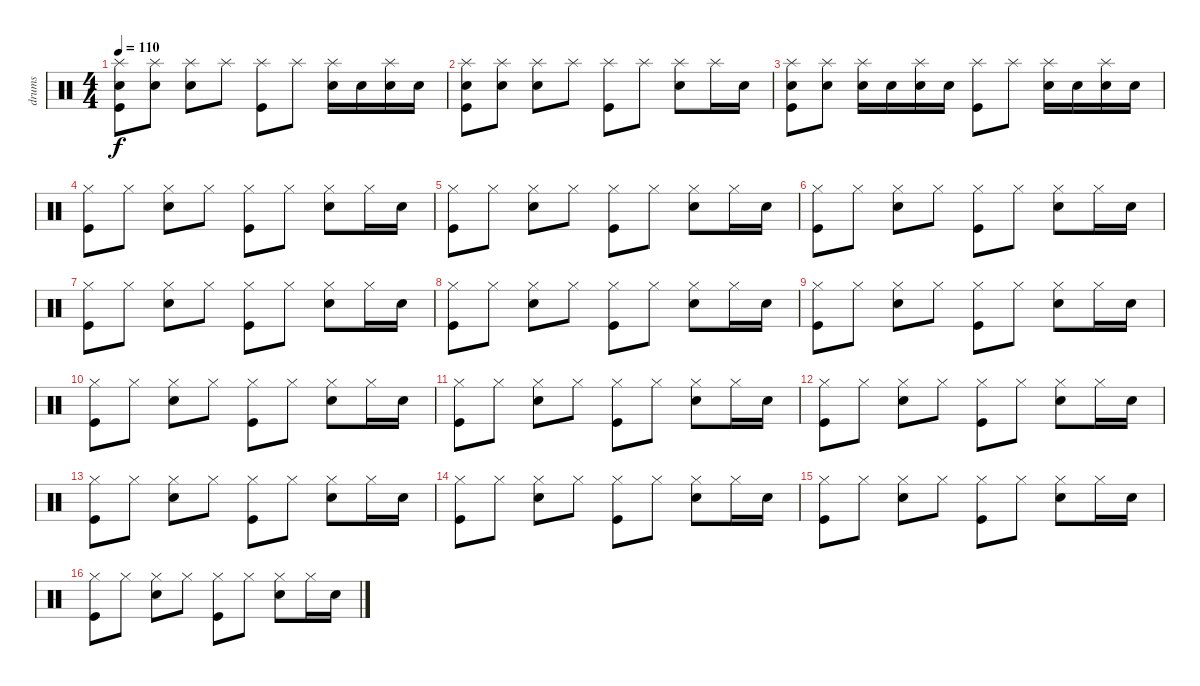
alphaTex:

\track ("drums" "drums") {instrument percussion}
\staff {score}
\articulation defaults
\ts (4 4)
\tempo 110
\clef neutral
\ks c
("Splash (hit)" "Snare (hit) 2" "Kick (hit)").8{dy f} ("Splash (hit)" "Snare (hit) 2").8 ("Splash (hit)" "Snare (hit) 2").8 "Splash (hit)".8 ("Splash (hit)" "Kick (hit)").8 "Splash (hit)".8 ("Splash (hit)" "Snare (hit) 2").16 "Snare (hit) 2".16 ("Splash (hit)" "Snare (hit) 2").16 "Snare (hit) 2".16 |
("Splash (hit)" "Snare (hit) 2" "Kick (hit)").8 ("Splash (hit)" "Snare (hit) 2").8 ("Splash (hit)" "Snare (hit) 2").8 "Splash (hit)".8 ("Splash (hit)" "Kick (hit)").8 "Splash (hit)".8 ("Splash (hit)" "Snare (hit) 2").8 "Splash (hit)".16 "Snare (hit) 2".16 |
("Splash (hit)" "Snare (hit) 2" "Kick (hit)").8 ("Splash (hit)" "Snare (hit) 2").8 ("Splash (hit)" "Snare (hit) 2").16 "Snare (hit) 2".16 ("Splash (hit)" "Snare (hit) 2").16 "Snare (hit) 2".16 ("Splash (hit)" "Kick (hit)").8 "Splash (hit)".8 ("Splash (hit)" "Snare (hit) 2").16 "Snare (hit) 2".16 ("Splash (hit)" "Snare (hit) 2").16 "Snare (hit) 2".16 |
("Hi-Hat (closed)" "Kick (hit)").8 "Hi-Hat (closed)".8 ("Hi-Hat (closed)" "Snare (hit) 2").8 "Hi-Hat (closed)".8 ("Hi-Hat (closed)" "Kick (hit)").8 "Hi-Hat (closed)".8 ("Hi-Hat (closed)" "Snare (hit) 2").8 "Hi-Hat (closed)".16 "Snare (hit) 2".16 |
("Hi-Hat (closed)" "Kick (hit)").8 "Hi-Hat (closed)".8 ("Hi-Hat (closed)" "Snare (hit) 2").8 "Hi-Hat (closed)".8 ("Hi-Hat (closed)" "Kick (hit)").8 "Hi-Hat (closed)".8 ("Hi-Hat (closed)" "Snare (hit) 2").8 "Hi-Hat (closed)".16 "Snare (hit) 2".16 |
("Hi-Hat (closed)" "Kick (hit)").8 "Hi-Hat (closed)".8 ("Hi-Hat (closed)" "Snare (hit) 2").8 "Hi-Hat (closed)".8 ("Hi-Hat (closed)" "Kick (hit)").8 "Hi-Hat (closed)".8 ("Hi-Hat (closed)" "Snare (hit) 2").8 "Hi-Hat (closed)".16 "Snare (hit) 2".16 |
("Hi-Hat (closed)" "Kick (hit)").8 "Hi-Hat (closed)".8 ("Hi-Hat (closed)" "Snare (hit) 2").8 "Hi-Hat (closed)".8 ("Hi-Hat (closed)" "Kick (hit)").8 "Hi-Hat (closed)".8 ("Hi-Hat (closed)" "Snare (hit) 2").8 "Hi-Hat (closed)".16 "Snare (hit) 2".16 |
("Hi-Hat (closed)" "Kick (hit)").8 "Hi-Hat (closed)".8 ("Hi-Hat (closed)" "Snare (hit) 2").8 "Hi-Hat (closed)".8 ("Hi-Hat (closed)" "Kick (hit)").8 "Hi-Hat (closed)".8 ("Hi-Hat (closed)" "Snare (hit) 2").8 "Hi-Hat (closed)".16 "Snare (hit) 2".16 |
("Hi-Hat (closed)" "Kick (hit)").8 "Hi-Hat (closed)".8 ("Hi-Hat (closed)" "Snare (hit) 2").8 "Hi-Hat (closed)".8 ("Hi-Hat (closed)" "Kick (hit)").8 "Hi-Hat (closed)".8 ("Hi-Hat (closed)" "Snare (hit) 2").8 "Hi-Hat (closed)".16 "Snare (hit) 2".16 |
("Hi-Hat (closed)" "Kick (hit)").8 "Hi-Hat (closed)".8 ("Hi-Hat (closed)" "Snare (hit) 2").8 "Hi-Hat (closed)".8 ("Hi-Hat (closed)" "Kick (hit)").8 "Hi-Hat (closed)".8 ("Hi-Hat (closed)" "Snare (hit) 2").8 "Hi-Hat (closed)".16 "Snare (hit) 2".16 |
("Hi-Hat (closed)" "Kick (hit)").8 "Hi-Hat (closed)".8 ("Hi-Hat (closed)" "Snare (hit) 2").8 "Hi-Hat (closed)".8 ("Hi-Hat (closed)" "Kick (hit)").8 "Hi-Hat (closed)".8 ("Hi-Hat (closed)" "Snare (hit) 2").8 "Hi-Hat (closed)".16 "Snare (hit) 2".16 |
("Hi-Hat (closed)" "Kick (hit)").8 "Hi-Hat (closed)".8 ("Hi-Hat (closed)" "Snare (hit) 2").8 "Hi-Hat (closed)".8 ("Hi-Hat (closed)" "Kick (hit)").8 "Hi-Hat (closed)".8 ("Hi-Hat (closed)" "Snare (hit) 2").8 "Hi-Hat (closed)".16 "Snare (hit) 2".16 |
("Hi-Hat (closed)" "Kick (hit)").8 "Hi-Hat (closed)".8 ("Hi-Hat (closed)" "Snare (hit) 2").8 "Hi-Hat (closed)".8 ("Hi-Hat (closed)" "Kick (hit)").8 "Hi-Hat (closed)".8 ("Hi-Hat (closed)" "Snare (hit) 2").8 "Hi-Hat (closed)".16 "Snare (hit) 2".16 |
("Hi-Hat (closed)" "Kick (hit)").8 "Hi-Hat (closed)".8 ("Hi-Hat (closed)" "Snare (hit) 2").8 "Hi-Hat (closed)".8 ("Hi-Hat (closed)" "Kick (hit)").8 "Hi-Hat (closed)".8 ("Hi-Hat (closed)" "Snare (hit) 2").8 "Hi-Hat (closed)".16 "Snare (hit) 2".16 |
("Hi-Hat (closed)" "Kick (hit)").8 "Hi-Hat (closed)".8 ("Hi-Hat (closed)" "Snare (hit) 2").8 "Hi-Hat (closed)".8 ("Hi-Hat (closed)" "Kick (hit)").8 "Hi-Hat (closed)".8 ("Hi-Hat (closed)" "Snare (hit) 2").8 "Hi-Hat (closed)".16 "Snare (hit) 2".16 |
("Hi-Hat (closed)" "Kick (hit)").8 "Hi-Hat (closed)".8 ("Hi-Hat (closed)" "Snare (hit) 2").8 "Hi-Hat (closed)".8 ("Hi-Hat (closed)" "Kick (hit)").8 "Hi-Hat (closed)".8 ("Hi-Hat (closed)" "Snare (hit) 2").8 "Hi-Hat (closed)".16 "Snare (hit) 2".16
